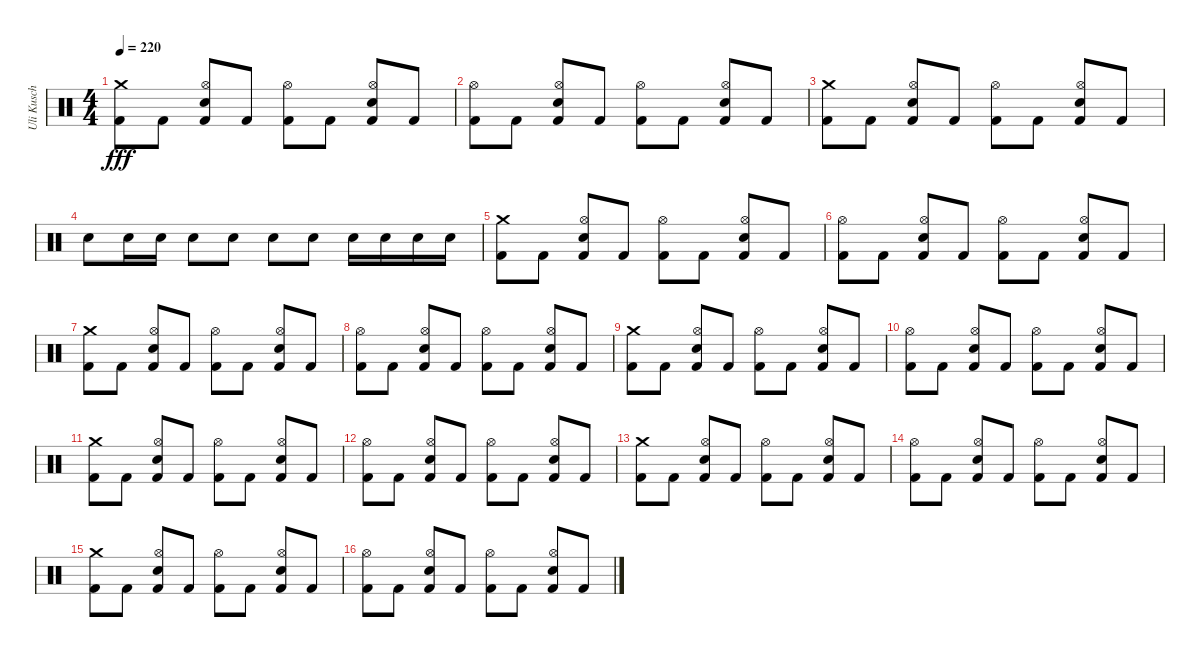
\track ("Uli Kusch" "Uli Kusch") {instrument percussion}
\staff {score}
\articulation defaults
\ts (4 4)
\tempo 220
\clef neutral
\ks c
("Crash medium (hit)" "Kick (hit) 2").8{dy fff} "Kick (hit) 2".8 ("Hi-Hat (open)" "Snare (hit) 2" "Kick (hit) 2").8 "Kick (hit) 2".8 ("Hi-Hat (open)" "Kick (hit) 2").8 "Kick (hit) 2".8 ("Hi-Hat (open)" "Snare (hit) 2" "Kick (hit) 2").8 "Kick (hit) 2".8 |
("Hi-Hat (open)" "Kick (hit) 2").8 "Kick (hit) 2".8 ("Hi-Hat (open)" "Snare (hit) 2" "Kick (hit) 2").8 "Kick (hit) 2".8 ("Hi-Hat (open)" "Kick (hit) 2").8 "Kick (hit) 2".8 ("Hi-Hat (open)" "Snare (hit) 2" "Kick (hit) 2").8 "Kick (hit) 2".8 |
("Crash medium (hit)" "Kick (hit) 2").8 "Kick (hit) 2".8 ("Hi-Hat (open)" "Snare (hit) 2" "Kick (hit) 2").8 "Kick (hit) 2".8 ("Hi-Hat (open)" "Kick (hit) 2").8 "Kick (hit) 2".8 ("Hi-Hat (open)" "Snare (hit) 2" "Kick (hit) 2").8 "Kick (hit) 2".8 |
"Snare (hit) 2".8 "Snare (hit) 2".16 "Snare (hit) 2".16 "Snare (hit) 2".8 "Snare (hit) 2".8 "Snare (hit) 2".8 "Snare (hit) 2".8 "Snare (hit) 2".16 "Snare (hit) 2".16 "Snare (hit) 2".16 "Snare (hit) 2".16 |
("Crash medium (hit)" "Kick (hit) 2").8 "Kick (hit) 2".8 ("Hi-Hat (open)" "Snare (hit) 2" "Kick (hit) 2").8 "Kick (hit) 2".8 ("Hi-Hat (open)" "Kick (hit) 2").8 "Kick (hit) 2".8 ("Hi-Hat (open)" "Snare (hit) 2" "Kick (hit) 2").8 "Kick (hit) 2".8 |
("Hi-Hat (open)" "Kick (hit) 2").8 "Kick (hit) 2".8 ("Hi-Hat (open)" "Snare (hit) 2" "Kick (hit) 2").8 "Kick (hit) 2".8 ("Hi-Hat (open)" "Kick (hit) 2").8 "Kick (hit) 2".8 ("Hi-Hat (open)" "Snare (hit) 2" "Kick (hit) 2").8 "Kick (hit) 2".8 |
("Crash medium (hit)" "Kick (hit) 2").8 "Kick (hit) 2".8 ("Hi-Hat (open)" "Snare (hit) 2" "Kick (hit) 2").8 "Kick (hit) 2".8 ("Hi-Hat (open)" "Kick (hit) 2").8 "Kick (hit) 2".8 ("Hi-Hat (open)" "Snare (hit) 2" "Kick (hit) 2").8 "Kick (hit) 2".8 |
("Hi-Hat (open)" "Kick (hit) 2").8 "Kick (hit) 2".8 ("Hi-Hat (open)" "Snare (hit) 2" "Kick (hit) 2").8 "Kick (hit) 2".8 ("Hi-Hat (open)" "Kick (hit) 2").8 "Kick (hit) 2".8 ("Hi-Hat (open)" "Snare (hit) 2" "Kick (hit) 2").8 "Kick (hit) 2".8 |
("Crash medium (hit)" "Kick (hit) 2").8 "Kick (hit) 2".8 ("Hi-Hat (open)" "Snare (hit) 2" "Kick (hit) 2").8 "Kick (hit) 2".8 ("Hi-Hat (open)" "Kick (hit) 2").8 "Kick (hit) 2".8 ("Hi-Hat (open)" "Snare (hit) 2" "Kick (hit) 2").8 "Kick (hit) 2".8 |
("Hi-Hat (open)" "Kick (hit) 2").8 "Kick (hit) 2".8 ("Hi-Hat (open)" "Snare (hit) 2" "Kick (hit) 2").8 "Kick (hit) 2".8 ("Hi-Hat (open)" "Kick (hit) 2").8 "Kick (hit) 2".8 ("Hi-Hat (open)" "Snare (hit) 2" "Kick (hit) 2").8 "Kick (hit) 2".8 |
("Crash medium (hit)" "Kick (hit) 2").8 "Kick (hit) 2".8 ("Hi-Hat (open)" "Snare (hit) 2" "Kick (hit) 2").8 "Kick (hit) 2".8 ("Hi-Hat (open)" "Kick (hit) 2").8 "Kick (hit) 2".8 ("Hi-Hat (open)" "Snare (hit) 2" "Kick (hit) 2").8 "Kick (hit) 2".8 |
("Hi-Hat (open)" "Kick (hit) 2").8 "Kick (hit) 2".8 ("Hi-Hat (open)" "Snare (hit) 2" "Kick (hit) 2").8 "Kick (hit) 2".8 ("Hi-Hat (open)" "Kick (hit) 2").8 "Kick (hit) 2".8 ("Hi-Hat (open)" "Snare (hit) 2" "Kick (hit) 2").8 "Kick (hit) 2".8 |
("Crash medium (hit)" "Kick (hit) 2").8 "Kick (hit) 2".8 ("Hi-Hat (open)" "Snare (hit) 2" "Kick (hit) 2").8 "Kick (hit) 2".8 ("Hi-Hat (open)" "Kick (hit) 2").8 "Kick (hit) 2".8 ("Hi-Hat (open)" "Snare (hit) 2" "Kick (hit) 2").8 "Kick (hit) 2".8 |
("Hi-Hat (open)" "Kick (hit) 2").8 "Kick (hit) 2".8 ("Hi-Hat (open)" "Snare (hit) 2" "Kick (hit) 2").8 "Kick (hit) 2".8 ("Hi-Hat (open)" "Kick (hit) 2").8 "Kick (hit) 2".8 ("Hi-Hat (open)" "Snare (hit) 2" "Kick (hit) 2").8 "Kick (hit) 2".8 |
("Crash medium (hit)" "Kick (hit) 2").8 "Kick (hit) 2".8 ("Hi-Hat (open)" "Snare (hit) 2" "Kick (hit) 2").8 "Kick (hit) 2".8 ("Hi-Hat (open)" "Kick (hit) 2").8 "Kick (hit) 2".8 ("Hi-Hat (open)" "Snare (hit) 2" "Kick (hit) 2").8 "Kick (hit) 2".8 |
("Hi-Hat (open)" "Kick (hit) 2").8 "Kick (hit) 2".8 ("Hi-Hat (open)" "Snare (hit) 2" "Kick (hit) 2").8 "Kick (hit) 2".8 ("Hi-Hat (open)" "Kick (hit) 2").8 "Kick (hit) 2".8 ("Hi-Hat (open)" "Snare (hit) 2" "Kick (hit) 2").8 "Kick (hit) 2".8
